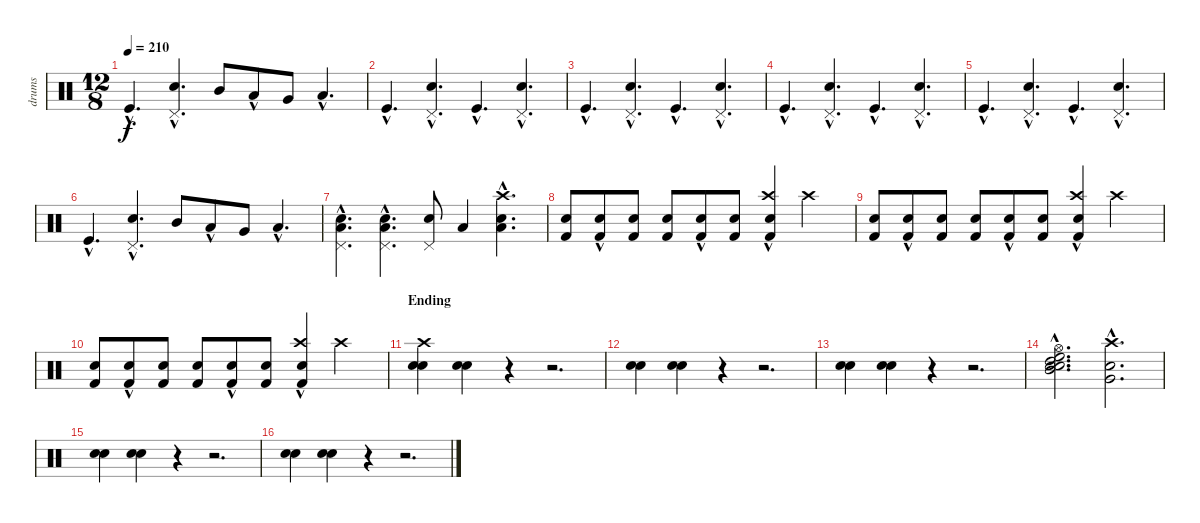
\track ("drums" "drums") {instrument percussion}
\staff {score}
\articulation defaults
\ts (12 8)
\tempo 210
\clef neutral
\ks c "Kick (hit)"{hac}.4{d dy f}
("Electric Snare (hit)"{hac} "Pedal Hi-Hat (hit)"{hac}).4{d} "Mid Tom (hit)".8 "Low Tom (hit)"{hac}.8 "Very Low Tom (hit)".8 "Low Floor Tom (hit)"{hac}.4{d} |
"Kick (hit)"{hac}.4{d} ("Electric Snare (hit)"{hac} "Pedal Hi-Hat (hit)"{hac}).4{d} "Kick (hit)"{hac}.4{d} ("Electric Snare (hit)"{hac} "Pedal Hi-Hat (hit)"{hac}).4{d} |
"Kick (hit)"{hac}.4{d} ("Electric Snare (hit)"{hac} "Pedal Hi-Hat (hit)"{hac}).4{d} "Kick (hit)"{hac}.4{d} ("Electric Snare (hit)"{hac} "Pedal Hi-Hat (hit)"{hac}).4{d} |
"Kick (hit)"{hac}.4{d} ("Electric Snare (hit)"{hac} "Pedal Hi-Hat (hit)"{hac}).4{d} "Kick (hit)"{hac}.4{d} ("Electric Snare (hit)"{hac} "Pedal Hi-Hat (hit)"{hac}).4{d} |
"Kick (hit)"{hac}.4{d} ("Electric Snare (hit)"{hac} "Pedal Hi-Hat (hit)"{hac}).4{d} "Kick (hit)"{hac}.4{d} ("Electric Snare (hit)"{hac} "Pedal Hi-Hat (hit)"{hac}).4{d} |
"Kick (hit)"{hac}.4{d} ("Electric Snare (hit)"{hac} "Pedal Hi-Hat (hit)"{hac}).4{d} "Mid Tom (hit)".8 "Low Tom (hit)"{hac}.8 "Very Low Tom (hit)".8 "Low Floor Tom (hit)"{hac}.4{d} |
("Pedal Hi-Hat (hit)"{hac} "Electric Snare (hit)"{hac} "Low Floor Tom (hit)"{hac}).4{d} ("Low Floor Tom (hit)"{hac} "Electric Snare (hit)"{hac} "Pedal Hi-Hat (hit)"{hac}).4{d} ("Pedal Hi-Hat (hit)" "Electric Snare (hit)").8 "Low Floor Tom (hit)".4 ("Crash high (hit)"{hac} "Low Floor Tom (hit)"{hac} "Snare (hit) 2"{hac}).4{d} |
("Electric Snare (hit)" "Kick (hit) 2").8 ("Electric Snare (hit)"{hac} "Kick (hit) 2"{hac}).8 ("Electric Snare (hit)" "Kick (hit) 2").8 ("Electric Snare (hit)" "Kick (hit) 2").8 ("Electric Snare (hit)"{hac} "Kick (hit) 2"{hac}).8 ("Electric Snare (hit)" "Kick (hit) 2").8 ("Electric Snare (hit)"{hac} "Kick (hit) 2"{hac} "Crash high (hit)").4 "Crash high (hit)".2 |
("Electric Snare (hit)" "Kick (hit) 2").8 ("Electric Snare (hit)"{hac} "Kick (hit) 2"{hac}).8 ("Electric Snare (hit)" "Kick (hit) 2").8 ("Electric Snare (hit)" "Kick (hit) 2").8 ("Electric Snare (hit)"{hac} "Kick (hit) 2"{hac}).8 ("Electric Snare (hit)" "Kick (hit) 2").8 ("Electric Snare (hit)"{hac} "Kick (hit) 2"{hac} "Crash high (hit)").4 "Crash high (hit)".2 |
("Electric Snare (hit)" "Kick (hit) 2").8 ("Electric Snare (hit)"{hac} "Kick (hit) 2"{hac}).8 ("Electric Snare (hit)" "Kick (hit) 2").8 ("Electric Snare (hit)" "Kick (hit) 2").8 ("Electric Snare (hit)"{hac} "Kick (hit) 2"{hac}).8 ("Electric Snare (hit)" "Kick (hit) 2").8 ("Electric Snare (hit)"{hac} "Kick (hit) 2"{hac} "Crash high (hit)").4 "Crash high (hit)".2 |
\section ("" "Ending")
("Crash high (hit)" "Electric Snare (hit)" "Snare (hit) 2").4 ("Electric Snare (hit)" "Snare (hit) 2").4 r.4 r.2{d} |
("Electric Snare (hit)" "Snare (hit) 2").4 ("Electric Snare (hit)" "Snare (hit) 2").4 r.4 r.2{d} |
("Electric Snare (hit)" "Snare (hit) 2").4 ("Electric Snare (hit)" "Snare (hit) 2").4 r.4 r.2{d} |
("Mid Tom (hit)"{hac} "Electric Snare (hit)" "High Tom (hit)"{hac} "Hi-Hat (open)"{hac} "High Floor Tom (hit)"{hac} "Electric Snare (hit)").2{d} ("Very Low Tom (hit)" "Crash high (hit)" "Electric Snare (hit)"{hac}).2{d} |
("Electric Snare (hit)" "Snare (hit) 2").4 ("Electric Snare (hit)" "Snare (hit) 2").4 r.4 r.2{d} |
("Electric Snare (hit)" "Snare (hit) 2").4 ("Electric Snare (hit)" "Snare (hit) 2").4 r.4 r.2{d}
